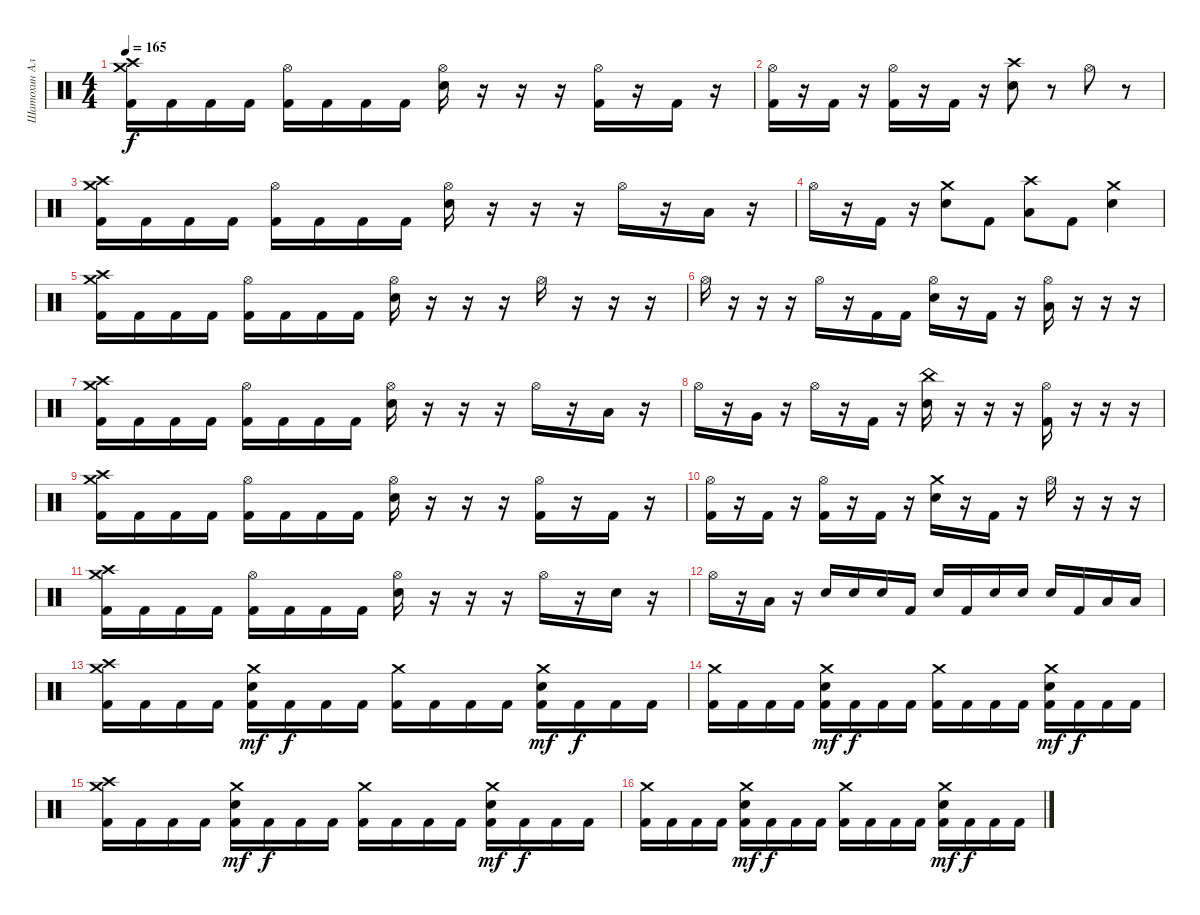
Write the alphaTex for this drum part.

\track ("Шатохин Алексей" "Шатохин Ал") {instrument percussion}
\staff {score}
\articulation defaults
\ts (4 4)
\tempo 165
\clef neutral
\ks c
("Crash medium (hit)" "Crash high (hit)" "Kick (hit) 2").16{dy f} "Kick (hit) 2".16 "Kick (hit) 2".16 "Kick (hit) 2".16 ("Hi-Hat (open)" "Kick (hit) 2").16 "Kick (hit) 2".16 "Kick (hit) 2".16 "Kick (hit) 2".16 ("Hi-Hat (open)" "Electric Snare (hit)").16 r.16 r.16 r.16 ("Hi-Hat (open)" "Kick (hit) 2").16 r.16 "Kick (hit) 2".16 r.16 |
("Hi-Hat (open)" "Kick (hit) 2").16 r.16 "Kick (hit) 2".16 r.16 ("Hi-Hat (open)" "Kick (hit) 2").16 r.16 "Kick (hit) 2".16 r.16 ("Crash high (hit)" "Electric Snare (hit)").8 r.8 "Hi-Hat (open)".8 r.8 |
("Crash medium (hit)" "Crash high (hit)" "Kick (hit) 2").16 "Kick (hit) 2".16 "Kick (hit) 2".16 "Kick (hit) 2".16 ("Hi-Hat (open)" "Kick (hit) 2").16 "Kick (hit) 2".16 "Kick (hit) 2".16 "Kick (hit) 2".16 ("Hi-Hat (open)" "Electric Snare (hit)").16 r.16 r.16 r.16 "Hi-Hat (open)".16 r.16 "Low Tom (hit)".16 r.16 |
"Hi-Hat (open)".16 r.16 "Kick (hit) 2".16 r.16 ("Crash medium (hit)" "Electric Snare (hit)").8 "Kick (hit) 2".8 ("Crash high (hit)" "Low Tom (hit)").8 "Kick (hit) 2".8 ("Crash medium (hit)" "Electric Snare (hit)").4 |
("Crash medium (hit)" "Crash high (hit)" "Kick (hit) 2").16 "Kick (hit) 2".16 "Kick (hit) 2".16 "Kick (hit) 2".16 ("Hi-Hat (open)" "Kick (hit) 2").16 "Kick (hit) 2".16 "Kick (hit) 2".16 "Kick (hit) 2".16 ("Hi-Hat (open)" "Electric Snare (hit)").16 r.16 r.16 r.16 "Hi-Hat (open)".16 r.16 r.16 r.16 |
"Hi-Hat (open)".16 r.16 r.16 r.16 "Hi-Hat (open)".16 r.16 "Kick (hit) 2".16 "Kick (hit) 2".16 ("Hi-Hat (open)" "Electric Snare (hit)").16 r.16 "Kick (hit) 2".16 r.16 ("Hi-Hat (open)" "Low Tom (hit)").16 r.16 r.16 r.16 |
("Crash high (hit)" "Crash medium (hit)" "Kick (hit) 2").16 "Kick (hit) 2".16 "Kick (hit) 2".16 "Kick (hit) 2".16 ("Hi-Hat (open)" "Kick (hit) 2").16 "Kick (hit) 2".16 "Kick (hit) 2".16 "Kick (hit) 2".16 ("Hi-Hat (open)" "Electric Snare (hit)").16 r.16 r.16 r.16 "Hi-Hat (open)".16 r.16 "Low Tom (hit)".16 r.16 |
"Hi-Hat (open)".16 r.16 "Very Low Tom (hit)".16 r.16 "Hi-Hat (open)".16 r.16 "Kick (hit) 2".16 r.16 ("China (hit)" "Electric Snare (hit)").16 r.16 r.16 r.16 ("Hi-Hat (open)" "Kick (hit) 2").16 r.16 r.16 r.16 |
("Crash medium (hit)" "Crash high (hit)" "Kick (hit) 2").16 "Kick (hit) 2".16 "Kick (hit) 2".16 "Kick (hit) 2".16 ("Hi-Hat (open)" "Kick (hit) 2").16 "Kick (hit) 2".16 "Kick (hit) 2".16 "Kick (hit) 2".16 ("Hi-Hat (open)" "Electric Snare (hit)").16 r.16 r.16 r.16 ("Hi-Hat (open)" "Kick (hit) 2").16 r.16 "Kick (hit) 2".16 r.16 |
("Hi-Hat (open)" "Kick (hit) 2").16 r.16 "Kick (hit) 2".16 r.16 ("Hi-Hat (open)" "Kick (hit) 2").16 r.16 "Kick (hit) 2".16 r.16 ("Crash medium (hit)" "Electric Snare (hit)").16 r.16 "Kick (hit) 2".16 r.16 "Hi-Hat (open)".16 r.16 r.16 r.16 |
("Crash medium (hit)" "Crash high (hit)" "Kick (hit) 2").16 "Kick (hit) 2".16 "Kick (hit) 2".16 "Kick (hit) 2".16 ("Hi-Hat (open)" "Kick (hit) 2").16 "Kick (hit) 2".16 "Kick (hit) 2".16 "Kick (hit) 2".16 ("Hi-Hat (open)" "Electric Snare (hit)").16 r.16 r.16 r.16 "Hi-Hat (open)".16 r.16 "Electric Snare (hit)".16 r.16 |
"Hi-Hat (open)".16 r.16 "Low Tom (hit)".16 r.16 "Electric Snare (hit)".16 "Electric Snare (hit)".16 "Electric Snare (hit)".16 "Kick (hit) 2".16 "Electric Snare (hit)".16 "Kick (hit) 2".16 "Electric Snare (hit)".16 "Electric Snare (hit)".16 "Electric Snare (hit)".16 "Kick (hit) 2".16 "Low Tom (hit)".16 "Low Tom (hit)".16 |
("Crash medium (hit)" "Crash high (hit)" "Kick (hit) 2").16 "Kick (hit) 2".16 "Kick (hit) 2".16 "Kick (hit) 2".16 ("Crash medium (hit)" "Electric Snare (hit)" "Kick (hit) 2").16{dy mf} "Kick (hit) 2".16{dy f} "Kick (hit) 2".16 "Kick (hit) 2".16 ("Crash medium (hit)" "Kick (hit) 2").16 "Kick (hit) 2".16 "Kick (hit) 2".16 "Kick (hit) 2".16 ("Crash medium (hit)" "Electric Snare (hit)" "Kick (hit) 2").16{dy mf} "Kick (hit) 2".16{dy f} "Kick (hit) 2".16 "Kick (hit) 2".16 |
("Crash medium (hit)" "Kick (hit) 2").16 "Kick (hit) 2".16 "Kick (hit) 2".16 "Kick (hit) 2".16 ("Crash medium (hit)" "Electric Snare (hit)" "Kick (hit) 2").16{dy mf} "Kick (hit) 2".16{dy f} "Kick (hit) 2".16 "Kick (hit) 2".16 ("Crash medium (hit)" "Kick (hit) 2").16 "Kick (hit) 2".16 "Kick (hit) 2".16 "Kick (hit) 2".16 ("Crash medium (hit)" "Electric Snare (hit)" "Kick (hit) 2").16{dy mf} "Kick (hit) 2".16{dy f} "Kick (hit) 2".16 "Kick (hit) 2".16 |
("Crash medium (hit)" "Crash high (hit)" "Kick (hit) 2").16 "Kick (hit) 2".16 "Kick (hit) 2".16 "Kick (hit) 2".16 ("Crash medium (hit)" "Electric Snare (hit)" "Kick (hit) 2").16{dy mf} "Kick (hit) 2".16{dy f} "Kick (hit) 2".16 "Kick (hit) 2".16 ("Crash medium (hit)" "Kick (hit) 2").16 "Kick (hit) 2".16 "Kick (hit) 2".16 "Kick (hit) 2".16 ("Crash medium (hit)" "Electric Snare (hit)" "Kick (hit) 2").16{dy mf} "Kick (hit) 2".16{dy f} "Kick (hit) 2".16 "Kick (hit) 2".16 |
("Crash medium (hit)" "Kick (hit) 2").16 "Kick (hit) 2".16 "Kick (hit) 2".16 "Kick (hit) 2".16 ("Crash medium (hit)" "Electric Snare (hit)" "Kick (hit) 2").16{dy mf} "Kick (hit) 2".16{dy f} "Kick (hit) 2".16 "Kick (hit) 2".16 ("Crash medium (hit)" "Kick (hit) 2").16 "Kick (hit) 2".16 "Kick (hit) 2".16 "Kick (hit) 2".16 ("Crash medium (hit)" "Electric Snare (hit)" "Kick (hit) 2").16{dy mf} "Kick (hit) 2".16{dy f} "Kick (hit) 2".16 "Kick (hit) 2".16
